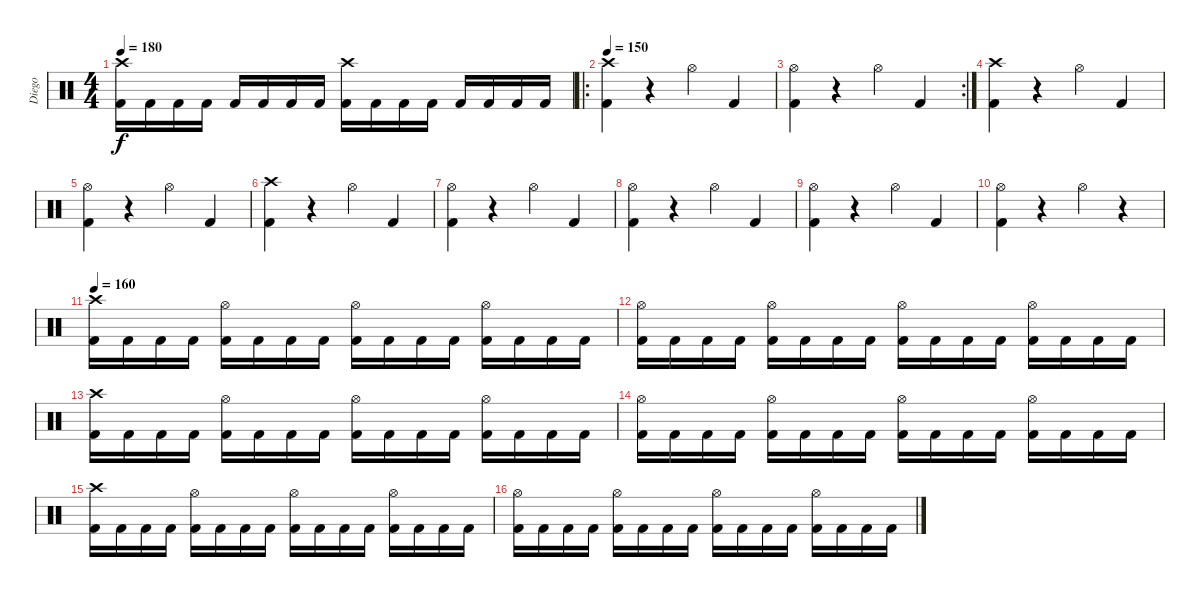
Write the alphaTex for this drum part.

\track ("Diego" "Diego") {instrument percussion}
\staff {score}
\articulation defaults
\ts (4 4)
\tempo 180
\clef neutral
\ks c
("Crash high (hit)" "Kick (hit) 2").16{dy f} "Kick (hit) 2".16 "Kick (hit) 2".16 "Kick (hit) 2".16 "Kick (hit) 2".16 "Kick (hit) 2".16 "Kick (hit) 2".16 "Kick (hit) 2".16 ("Crash high (hit)" "Kick (hit) 2").16 "Kick (hit) 2".16 "Kick (hit) 2".16 "Kick (hit) 2".16 "Kick (hit) 2".16 "Kick (hit) 2".16 "Kick (hit) 2".16 "Kick (hit) 2".16 |
\ro
\tempo 150
("Kick (hit) 2" "Crash high (hit)").4 r.4 "Hi-Hat (open)".4 "Kick (hit) 2".4 |
\rc 2
("Kick (hit) 2" "Hi-Hat (open)").4 r.4 "Hi-Hat (open)".4 "Kick (hit) 2".4 |
("Kick (hit) 2" "Crash high (hit)").4 r.4 "Hi-Hat (open)".4 "Kick (hit) 2".4 |
("Kick (hit) 2" "Hi-Hat (open)").4 r.4 "Hi-Hat (open)".4 "Kick (hit) 2".4 |
("Kick (hit) 2" "Crash high (hit)").4 r.4 "Hi-Hat (open)".4 "Kick (hit) 2".4 |
("Kick (hit) 2" "Hi-Hat (open)").4 r.4 "Hi-Hat (open)".4 "Kick (hit) 2".4 |
("Kick (hit) 2" "Hi-Hat (open)").4 r.4 "Hi-Hat (open)".4 "Kick (hit) 2".4 |
("Kick (hit) 2" "Hi-Hat (open)").4 r.4 "Hi-Hat (open)".4 "Kick (hit) 2".4 |
("Kick (hit) 2" "Hi-Hat (open)").4 r.4 "Hi-Hat (open)".4 r.4 |
\tempo 160
("Crash high (hit)" "Kick (hit) 2").16 "Kick (hit) 2".16 "Kick (hit) 2".16 "Kick (hit) 2".16 ("Hi-Hat (open)" "Kick (hit) 2").16 "Kick (hit) 2".16 "Kick (hit) 2".16 "Kick (hit) 2".16 ("Hi-Hat (open)" "Kick (hit) 2").16 "Kick (hit) 2".16 "Kick (hit) 2".16 "Kick (hit) 2".16 ("Hi-Hat (open)" "Kick (hit) 2").16 "Kick (hit) 2".16 "Kick (hit) 2".16 "Kick (hit) 2".16 |
("Hi-Hat (open)" "Kick (hit) 2").16 "Kick (hit) 2".16 "Kick (hit) 2".16 "Kick (hit) 2".16 ("Hi-Hat (open)" "Kick (hit) 2").16 "Kick (hit) 2".16 "Kick (hit) 2".16 "Kick (hit) 2".16 ("Hi-Hat (open)" "Kick (hit) 2").16 "Kick (hit) 2".16 "Kick (hit) 2".16 "Kick (hit) 2".16 ("Hi-Hat (open)" "Kick (hit) 2").16 "Kick (hit) 2".16 "Kick (hit) 2".16 "Kick (hit) 2".16 |
("Crash high (hit)" "Kick (hit) 2").16 "Kick (hit) 2".16 "Kick (hit) 2".16 "Kick (hit) 2".16 ("Hi-Hat (open)" "Kick (hit) 2").16 "Kick (hit) 2".16 "Kick (hit) 2".16 "Kick (hit) 2".16 ("Hi-Hat (open)" "Kick (hit) 2").16 "Kick (hit) 2".16 "Kick (hit) 2".16 "Kick (hit) 2".16 ("Hi-Hat (open)" "Kick (hit) 2").16 "Kick (hit) 2".16 "Kick (hit) 2".16 "Kick (hit) 2".16 |
("Hi-Hat (open)" "Kick (hit) 2").16 "Kick (hit) 2".16 "Kick (hit) 2".16 "Kick (hit) 2".16 ("Hi-Hat (open)" "Kick (hit) 2").16 "Kick (hit) 2".16 "Kick (hit) 2".16 "Kick (hit) 2".16 ("Hi-Hat (open)" "Kick (hit) 2").16 "Kick (hit) 2".16 "Kick (hit) 2".16 "Kick (hit) 2".16 ("Hi-Hat (open)" "Kick (hit) 2").16 "Kick (hit) 2".16 "Kick (hit) 2".16 "Kick (hit) 2".16 |
("Crash high (hit)" "Kick (hit) 2").16 "Kick (hit) 2".16 "Kick (hit) 2".16 "Kick (hit) 2".16 ("Hi-Hat (open)" "Kick (hit) 2").16 "Kick (hit) 2".16 "Kick (hit) 2".16 "Kick (hit) 2".16 ("Hi-Hat (open)" "Kick (hit) 2").16 "Kick (hit) 2".16 "Kick (hit) 2".16 "Kick (hit) 2".16 ("Hi-Hat (open)" "Kick (hit) 2").16 "Kick (hit) 2".16 "Kick (hit) 2".16 "Kick (hit) 2".16 |
("Hi-Hat (open)" "Kick (hit) 2").16 "Kick (hit) 2".16 "Kick (hit) 2".16 "Kick (hit) 2".16 ("Hi-Hat (open)" "Kick (hit) 2").16 "Kick (hit) 2".16 "Kick (hit) 2".16 "Kick (hit) 2".16 ("Hi-Hat (open)" "Kick (hit) 2").16 "Kick (hit) 2".16 "Kick (hit) 2".16 "Kick (hit) 2".16 ("Hi-Hat (open)" "Kick (hit) 2").16 "Kick (hit) 2".16 "Kick (hit) 2".16 "Kick (hit) 2".16
